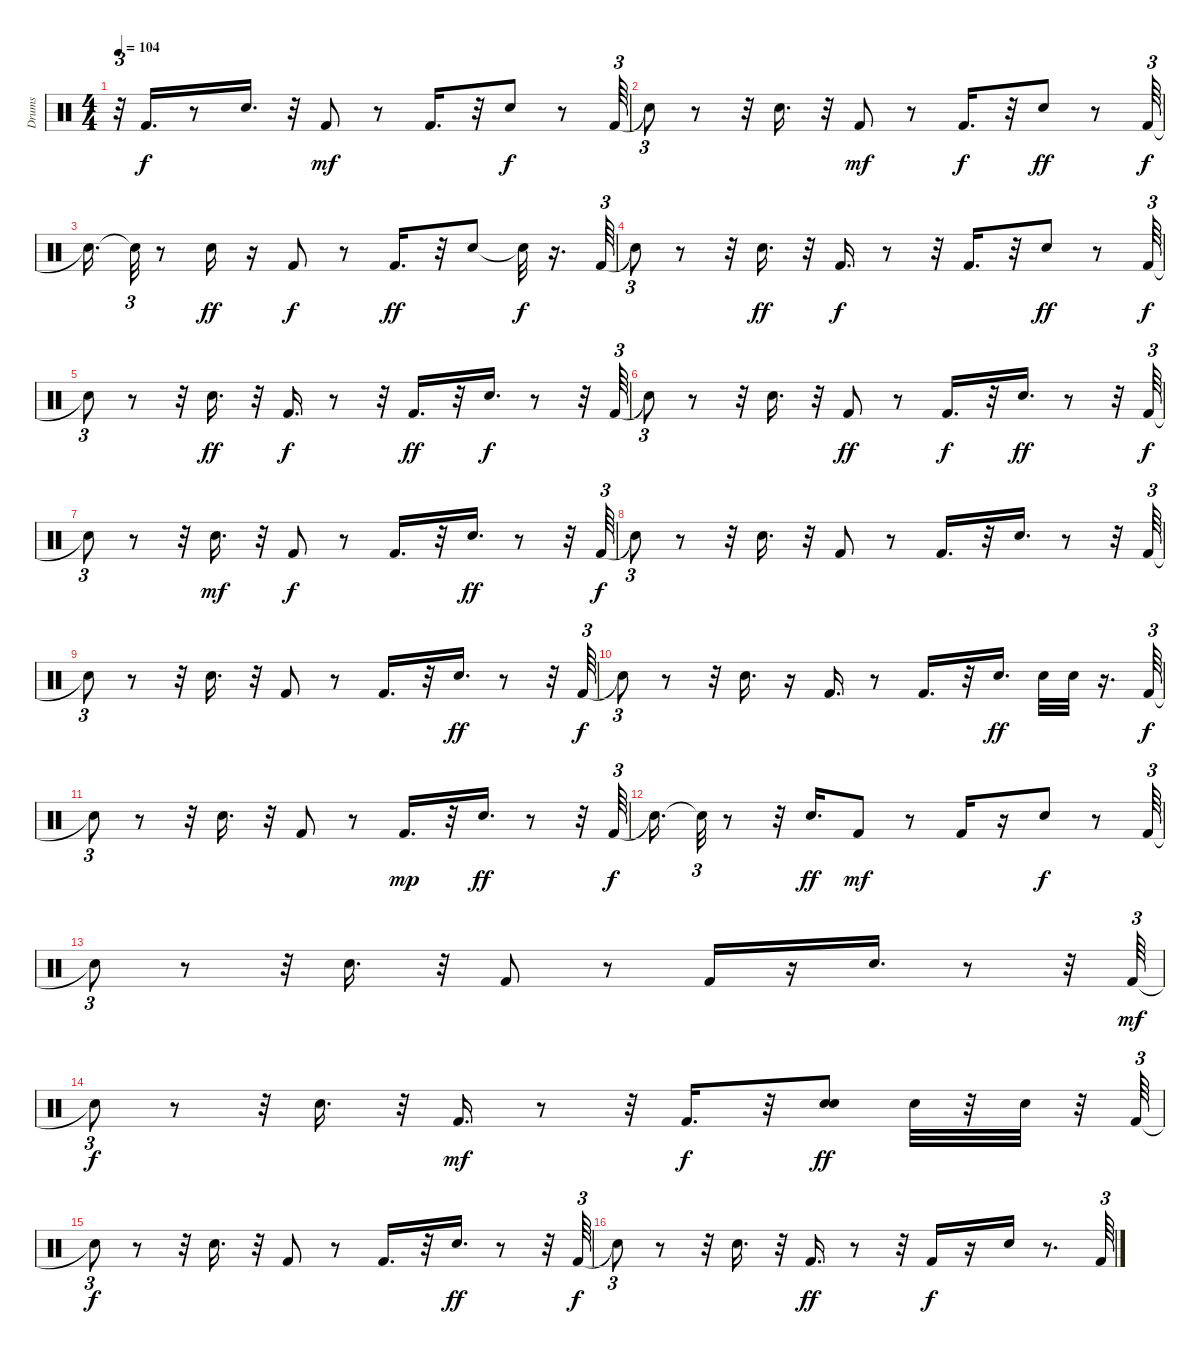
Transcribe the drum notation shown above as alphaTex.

\track ("Drums" "Drums") {instrument percussion}
\staff {score}
\articulation defaults
\ts (4 4)
\tempo 104
\clef neutral
\ks c
r.32{tu (3 2) dy f} "Kick (hit) 2".16{d} r.8 "Snare (hit) 2".16{d} r.32 "Kick (hit) 2".8{dy mf} r.8 "Kick (hit) 2".16{d} r.32 "Snare (hit) 2".8{dy f} r.8 "Kick (hit) 2".64{tu (3 2)} |
"Snare (hit)"{t}.8{tu (3 2)} r.8 r.32 "Snare (hit) 2".16{d} r.32 "Kick (hit) 2".8{dy mf} r.8 "Kick (hit) 2".16{d dy f} r.32 "Snare (hit) 2".8{dy ff} r.8 "Kick (hit) 2".64{tu (3 2) dy f} |
"Snare (hit)"{t}.16{d} "Snare (hit)"{t}.32{tu (3 2)} r.8 "Snare (hit) 2".16{dy ff} r.16 "Kick (hit) 2".8{dy f} r.8 "Kick (hit) 2".16{d dy ff} r.32 "Snare (hit) 2".8 "Snare (hit)"{t}.32{dy f} r.16{d} "Kick (hit) 2".64{tu (3 2)} |
"Snare (hit)"{t}.8{tu (3 2)} r.8 r.32 "Snare (hit) 2".16{d dy ff} r.32 "Kick (hit) 2".16{d dy f} r.8 r.32 "Kick (hit) 2".16{d} r.32 "Snare (hit) 2".8{dy ff} r.8 "Kick (hit) 2".64{tu (3 2) dy f} |
"Snare (hit)"{t}.8{tu (3 2)} r.8 r.32 "Snare (hit) 2".16{d dy ff} r.32 "Kick (hit) 2".16{d dy f} r.8 r.32 "Kick (hit) 2".16{d dy ff} r.32 "Snare (hit) 2".16{d dy f} r.8 r.32 "Kick (hit) 2".64{tu (3 2)} |
"Snare (hit)"{t}.8{tu (3 2)} r.8 r.32 "Snare (hit) 2".16{d} r.32 "Kick (hit) 2".8{dy ff} r.8 "Kick (hit) 2".16{d dy f} r.32 "Snare (hit) 2".16{d dy ff} r.8 r.32 "Kick (hit) 2".64{tu (3 2) dy f} |
"Snare (hit)"{t}.8{tu (3 2)} r.8 r.32 "Snare (hit) 2".16{d dy mf} r.32 "Kick (hit) 2".8{dy f} r.8 "Kick (hit) 2".16{d} r.32 "Snare (hit) 2".16{d dy ff} r.8 r.32 "Kick (hit) 2".64{tu (3 2) dy f} |
"Snare (hit)"{t}.8{tu (3 2)} r.8 r.32 "Snare (hit) 2".16{d} r.32 "Kick (hit) 2".8 r.8 "Kick (hit) 2".16{d} r.32 "Snare (hit) 2".16{d} r.8 r.32 "Kick (hit) 2".64{tu (3 2)} |
"Snare (hit)"{t}.8{tu (3 2)} r.8 r.32 "Snare (hit) 2".16{d} r.32 "Kick (hit) 2".8 r.8 "Kick (hit) 2".16{d} r.32 "Snare (hit) 2".16{d dy ff} r.8 r.32 "Kick (hit) 2".64{tu (3 2) dy f} |
"Snare (hit)"{t}.8{tu (3 2)} r.8 r.32 "Snare (hit) 2".16{d} r.16 "Kick (hit) 2".16{d} r.8 "Kick (hit) 2".16{d} r.32 "Snare (hit) 2".16{d dy ff} "Snare (hit) 2".32 "Snare (hit) 2".32 r.16{d} "Kick (hit) 2".64{tu (3 2) dy f} |
"Snare (hit)"{t}.8{tu (3 2)} r.8 r.32 "Snare (hit) 2".16{d} r.32 "Kick (hit) 2".8 r.8 "Kick (hit) 2".16{d dy mp} r.32 "Snare (hit) 2".16{d dy ff} r.8 r.32 "Kick (hit) 2".64{tu (3 2) dy f} |
"Snare (hit)"{t}.16{d} "Snare (hit)"{t}.32{tu (3 2)} r.8 r.32 "Snare (hit) 2".16{d dy ff} "Kick (hit) 2".8{dy mf} r.8 "Kick (hit) 2".16 r.16 "Snare (hit) 2".8{dy f} r.8 "Kick (hit) 2".64{tu (3 2)} |
"Snare (hit)"{t}.8{tu (3 2)} r.8 r.32 "Snare (hit) 2".16{d} r.32 "Kick (hit) 2".8 r.8 "Kick (hit) 2".16 r.16 "Snare (hit) 2".16{d} r.8 r.32 "Kick (hit) 2".64{tu (3 2) dy mf} |
"Snare (hit)"{t}.8{tu (3 2) dy f} r.8 r.32 "Snare (hit) 2".16{d} r.32 "Kick (hit) 2".16{d dy mf} r.8 r.32 "Kick (hit) 2".16{d dy f} r.32 ("Snare (hit) 2" "Snare (hit) 2").8{dy ff} "Snare (hit) 2".32 r.32 "Snare (hit) 2".32 r.32 "Kick (hit) 2".64{tu (3 2)} |
"Snare (hit)"{t}.8{tu (3 2) dy f} r.8 r.32 "Snare (hit) 2".16{d} r.32 "Kick (hit) 2".8 r.8 "Kick (hit) 2".16{d} r.32 "Snare (hit) 2".16{d dy ff} r.8 r.32 "Kick (hit) 2".64{tu (3 2) dy f} |
"Snare (hit)"{t}.8{tu (3 2)} r.8 r.32 "Snare (hit) 2".16{d} r.32 "Kick (hit) 2".16{d dy ff} r.8 r.32 "Kick (hit) 2".16{dy f} r.16 "Snare (hit) 2".16 r.8{d} "Kick (hit) 2".64{tu (3 2)}
